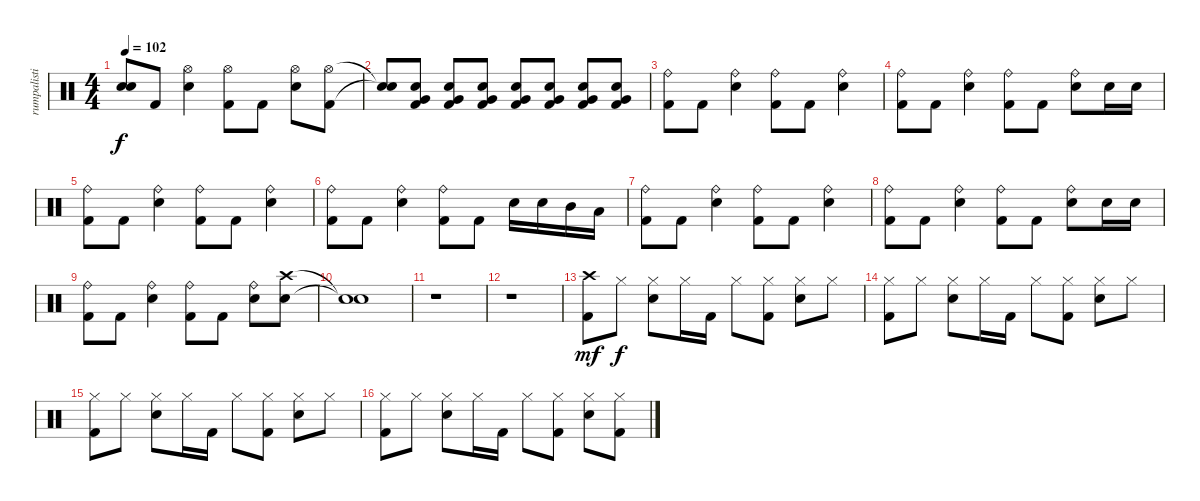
\track ("rumpalisti" "rumpalisti") {instrument percussion}
\staff {score}
\articulation defaults
\ts (4 4)
\tempo 102
\clef neutral
\ks c
("Snare (hit)"{t} "Snare (hit)"{t}).8{dy f} "Kick (hit) 2".8 ("Hi-Hat (open)" "Snare (hit) 2").4 ("Kick (hit) 2" "Hi-Hat (open)").8 "Kick (hit) 2".8 ("Hi-Hat (open)" "Snare (hit) 2").8 ("Kick (hit) 2" "Hi-Hat (open)").8 |
("Snare (hit)"{t} "Snare (hit)"{t}).8 ("Kick (hit) 2" "Very Low Tom (hit)" "Snare (hit) 2").8 ("Kick (hit) 2" "Very Low Tom (hit)" "Snare (hit) 2").8 ("Kick (hit) 2" "Very Low Tom (hit)" "Snare (hit) 2").8 ("Kick (hit) 2" "Very Low Tom (hit)" "Snare (hit) 2").8 ("Kick (hit) 2" "Very Low Tom (hit)" "Snare (hit) 2").8 ("Kick (hit) 2" "Very Low Tom (hit)" "Snare (hit) 2").8 ("Kick (hit) 2" "Very Low Tom (hit)" "Snare (hit) 2").8 |
("Kick (hit) 2" "Ride (bell)").8 "Kick (hit) 2".8 ("Ride (bell)" "Snare (hit) 2").4 ("Kick (hit) 2" "Ride (bell)").8 "Kick (hit) 2".8 ("Ride (bell)" "Snare (hit) 2").4 |
("Kick (hit) 2" "Ride (bell)").8 "Kick (hit) 2".8 ("Ride (bell)" "Snare (hit) 2").4 ("Kick (hit) 2" "Ride (bell)").8 "Kick (hit) 2".8 ("Ride (bell)" "Snare (hit) 2").8 "Snare (hit) 2".16 "Snare (hit) 2".16 |
("Kick (hit) 2" "Ride (bell)").8 "Kick (hit) 2".8 ("Ride (bell)" "Snare (hit) 2").4 ("Kick (hit) 2" "Ride (bell)").8 "Kick (hit) 2".8 ("Ride (bell)" "Snare (hit) 2").4 |
("Kick (hit) 2" "Ride (bell)").8 "Kick (hit) 2".8 ("Ride (bell)" "Snare (hit) 2").4 ("Kick (hit) 2" "Ride (bell)").8 "Kick (hit) 2".8 "Snare (hit) 2".16 "Snare (hit) 2".16 "Mid Tom (hit)".16 "Low Tom (hit)".16 |
("Kick (hit) 2" "Ride (bell)").8 "Kick (hit) 2".8 ("Ride (bell)" "Snare (hit) 2").4 ("Kick (hit) 2" "Ride (bell)").8 "Kick (hit) 2".8 ("Ride (bell)" "Snare (hit) 2").4 |
("Kick (hit) 2" "Ride (bell)").8 "Kick (hit) 2".8 ("Ride (bell)" "Snare (hit) 2").4 ("Kick (hit) 2" "Ride (bell)").8 "Kick (hit) 2".8 ("Ride (bell)" "Snare (hit) 2").8 "Snare (hit) 2".16 "Snare (hit) 2".16 |
("Kick (hit) 2" "Ride (bell)").8 "Kick (hit) 2".8 ("Ride (bell)" "Snare (hit) 2").4 ("Kick (hit) 2" "Ride (bell)").8 "Kick (hit) 2".8 ("Ride (bell)" "Snare (hit) 2").8 ("Crash high (hit)" "Snare (hit) 2").8 |
("Snare (hit)"{t} "Snare (hit)"{t}).1 |
r.1 |
r.1 |
("Kick (hit) 2" "Crash high (hit)").8{dy mf} "Hi-Hat (closed)".8{dy f} ("Hi-Hat (closed)" "Snare (hit) 2").8 "Hi-Hat (closed)".16 "Kick (hit) 2".16 "Hi-Hat (closed)".8 ("Kick (hit) 2" "Hi-Hat (closed)").8 ("Hi-Hat (closed)" "Snare (hit) 2").8 "Hi-Hat (closed)".8 |
("Kick (hit) 2" "Hi-Hat (closed)").8 "Hi-Hat (closed)".8 ("Hi-Hat (closed)" "Snare (hit) 2").8 "Hi-Hat (closed)".16 "Kick (hit) 2".16 "Hi-Hat (closed)".8 ("Kick (hit) 2" "Hi-Hat (closed)").8 ("Hi-Hat (closed)" "Snare (hit) 2").8 "Hi-Hat (closed)".8 |
("Kick (hit) 2" "Hi-Hat (closed)").8 "Hi-Hat (closed)".8 ("Hi-Hat (closed)" "Snare (hit) 2").8 "Hi-Hat (closed)".16 "Kick (hit) 2".16 "Hi-Hat (closed)".8 ("Kick (hit) 2" "Hi-Hat (closed)").8 ("Hi-Hat (closed)" "Snare (hit) 2").8 "Hi-Hat (closed)".8 |
("Kick (hit) 2" "Hi-Hat (closed)").8 "Hi-Hat (closed)".8 ("Hi-Hat (closed)" "Snare (hit) 2").8 "Hi-Hat (closed)".16 "Kick (hit) 2".16 "Hi-Hat (closed)".8 ("Kick (hit) 2" "Hi-Hat (closed)").8 ("Hi-Hat (closed)" "Snare (hit) 2").8 ("Kick (hit) 2" "Hi-Hat (closed)").8
